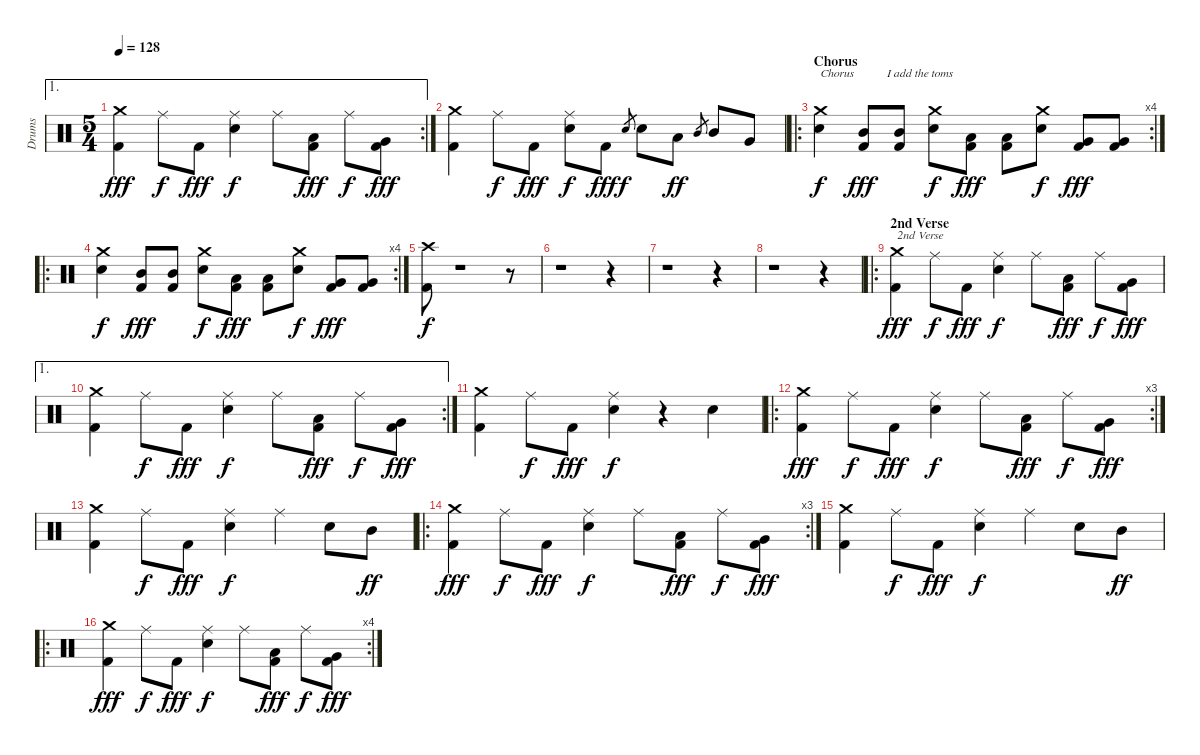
\track ("Drums" "Drums") {instrument percussion}
\staff {score}
\articulation defaults
\ae 1
\rc 2
\ts (5 4)
\tempo 128
\clef neutral
\ks c
("Crash medium (hit)" "Kick (hit) 2").4{dy fff} "Ride (middle)".8{dy f} "Kick (hit) 2".8{dy fff} ("Ride (middle)" "Snare (hit) 2").4{dy f} "Ride (middle)".8 ("Low Tom (hit)" "Kick (hit) 2").8{dy fff} "Ride (middle)".8{dy f} ("Very Low Tom (hit)" "Kick (hit) 2").8{dy fff} |
("Crash medium (hit)" "Kick (hit) 2").4 "Ride (middle)".8{dy f} "Kick (hit) 2".8{dy fff} ("Ride (middle)" "Snare (hit) 2").8{dy f} "Kick (hit) 2".8{dy fff} "Snare (hit) 2".8{gr dy f} "Snare (hit) 2".8 "Low Tom (hit)".8{dy ff} "Mid Tom (hit)".8{gr} "Mid Tom (hit)".8 "Very Low Tom (hit)".8 |
\ro
\rc 4
\section ("" "Chorus")
("Crash medium (hit)" "Snare (hit) 2").4{txt "Chorus           I add the toms" dy f} ("Mid Tom (hit)" "Kick (hit) 2").8{dy fff} ("Mid Tom (hit)" "Kick (hit) 2").8 ("Crash medium (hit)" "Snare (hit) 2").8{dy f} ("Low Tom (hit)" "Kick (hit) 2").8{dy fff} ("Low Tom (hit)" "Kick (hit) 2").8 ("Crash medium (hit)" "Snare (hit) 2").8{dy f} ("Very Low Tom (hit)" "Kick (hit) 2").8{dy fff} ("Very Low Tom (hit)" "Kick (hit) 2").8 |
\ro
\rc 4
("Crash medium (hit)" "Snare (hit) 2").4{dy f} ("Mid Tom (hit)" "Kick (hit) 2").8{dy fff} ("Mid Tom (hit)" "Kick (hit) 2").8 ("Crash medium (hit)" "Snare (hit) 2").8{dy f} ("Low Tom (hit)" "Kick (hit) 2").8{dy fff} ("Low Tom (hit)" "Kick (hit) 2").8 ("Crash medium (hit)" "Snare (hit) 2").8{dy f} ("Very Low Tom (hit)" "Kick (hit) 2").8{dy fff} ("Very Low Tom (hit)" "Kick (hit) 2").8 |
("Crash high (hit)" "Kick (hit) 2").8{dy f} r.1 r.8 |
r.1 r.4 |
r.1 r.4 |
r.1 r.4 |
\ro
\section ("" "2nd Verse")
("Crash medium (hit)" "Kick (hit) 2").4{txt "2nd Verse" dy fff} "Ride (middle)".8{dy f} "Kick (hit) 2".8{dy fff} ("Ride (middle)" "Snare (hit) 2").4{dy f} "Ride (middle)".8 ("Low Tom (hit)" "Kick (hit) 2").8{dy fff} "Ride (middle)".8{dy f} ("Very Low Tom (hit)" "Kick (hit) 2").8{dy fff} |
\ae 1
\rc 2
("Crash medium (hit)" "Kick (hit) 2").4 "Ride (middle)".8{dy f} "Kick (hit) 2".8{dy fff} ("Ride (middle)" "Snare (hit) 2").4{dy f} "Ride (middle)".8 ("Low Tom (hit)" "Kick (hit) 2").8{dy fff} "Ride (middle)".8{dy f} ("Very Low Tom (hit)" "Kick (hit) 2").8{dy fff} |
("Crash medium (hit)" "Kick (hit) 2").4 "Ride (middle)".8{dy f} "Kick (hit) 2".8{dy fff} ("Ride (middle)" "Snare (hit) 2").4{dy f} r.4 "Snare (hit) 2".4 |
\ro
\rc 3
("Crash medium (hit)" "Kick (hit) 2").4{dy fff} "Ride (middle)".8{dy f} "Kick (hit) 2".8{dy fff} ("Ride (middle)" "Snare (hit) 2").4{dy f} "Ride (middle)".8 ("Low Tom (hit)" "Kick (hit) 2").8{dy fff} "Ride (middle)".8{dy f} ("Very Low Tom (hit)" "Kick (hit) 2").8{dy fff} |
("Crash medium (hit)" "Kick (hit) 2").4 "Ride (middle)".8{dy f} "Kick (hit) 2".8{dy fff} ("Ride (middle)" "Snare (hit) 2").4{dy f} "Ride (middle)".4 "Snare (hit) 2".8 "Mid Tom (hit)".8{dy ff} |
\ro
\rc 3
("Crash medium (hit)" "Kick (hit) 2").4{dy fff} "Ride (middle)".8{dy f} "Kick (hit) 2".8{dy fff} ("Ride (middle)" "Snare (hit) 2").4{dy f} "Ride (middle)".8 ("Low Tom (hit)" "Kick (hit) 2").8{dy fff} "Ride (middle)".8{dy f} ("Very Low Tom (hit)" "Kick (hit) 2").8{dy fff} |
("Crash medium (hit)" "Kick (hit) 2").4 "Ride (middle)".8{dy f} "Kick (hit) 2".8{dy fff} ("Ride (middle)" "Snare (hit) 2").4{dy f} "Ride (middle)".4 "Snare (hit) 2".8 "Mid Tom (hit)".8{dy ff} |
\ro
\rc 4
("Crash medium (hit)" "Kick (hit) 2").4{dy fff} "Ride (middle)".8{dy f} "Kick (hit) 2".8{dy fff} ("Ride (middle)" "Snare (hit) 2").4{dy f} "Ride (middle)".8 ("Low Tom (hit)" "Kick (hit) 2").8{dy fff} "Ride (middle)".8{dy f} ("Very Low Tom (hit)" "Kick (hit) 2").8{dy fff}
